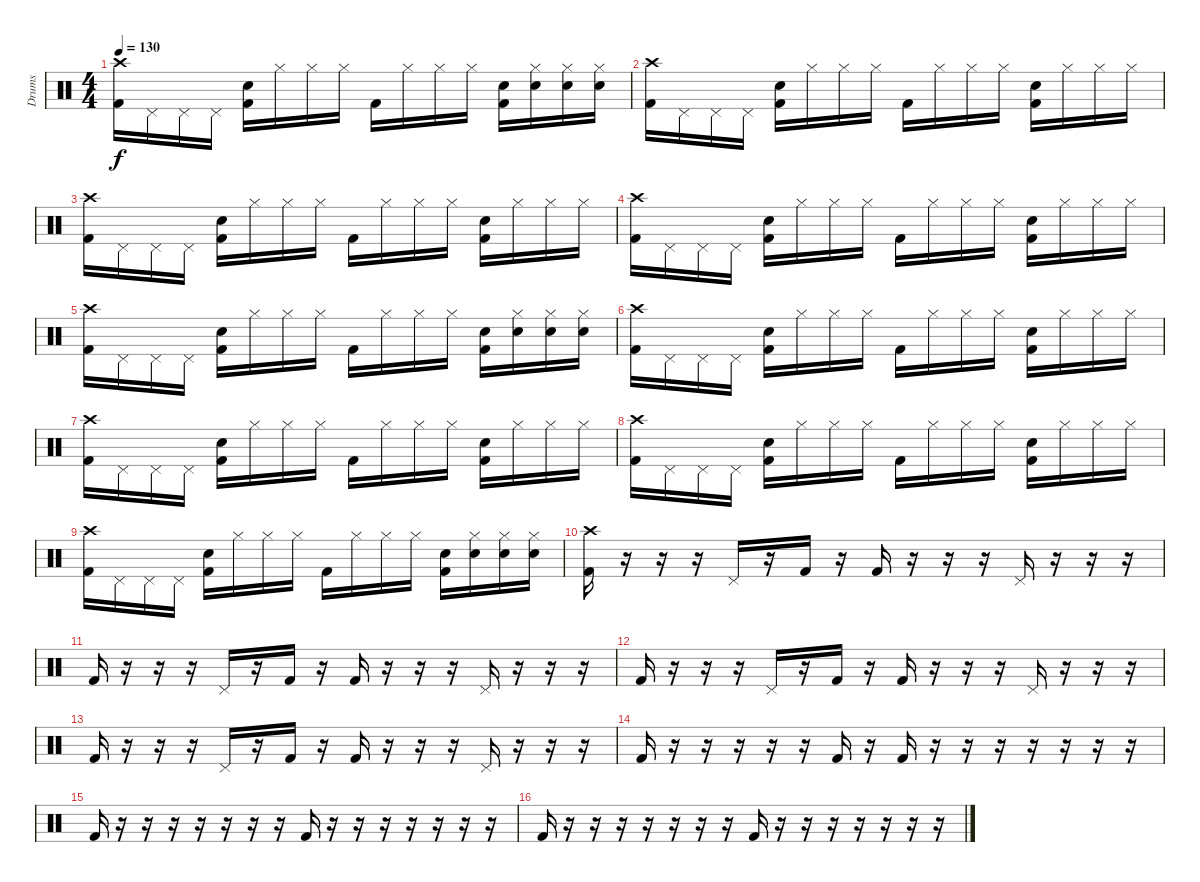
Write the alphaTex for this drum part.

\track ("Drums" "Drums") {instrument percussion}
\staff {score}
\articulation defaults
\ts (4 4)
\tempo 130
\clef neutral
\ks c
("Crash high (hit)" "Kick (hit) 2").16{dy f} "Pedal Hi-Hat (hit)".16 "Pedal Hi-Hat (hit)".16 "Pedal Hi-Hat (hit)".16 ("Electric Snare (hit)" "Kick (hit) 2").16 "Hi-Hat (closed)".16 "Hi-Hat (closed)".16 "Hi-Hat (closed)".16 "Kick (hit) 2".16 "Hi-Hat (closed)".16 "Hi-Hat (closed)".16 "Hi-Hat (closed)".16 ("Electric Snare (hit)" "Kick (hit) 2").16 ("Hi-Hat (closed)" "Electric Snare (hit)").16 ("Hi-Hat (closed)" "Electric Snare (hit)").16 ("Hi-Hat (closed)" "Electric Snare (hit)").16 |
("Crash high (hit)" "Kick (hit) 2").16 "Pedal Hi-Hat (hit)".16 "Pedal Hi-Hat (hit)".16 "Pedal Hi-Hat (hit)".16 ("Electric Snare (hit)" "Kick (hit) 2").16 "Hi-Hat (closed)".16 "Hi-Hat (closed)".16 "Hi-Hat (closed)".16 "Kick (hit) 2".16 "Hi-Hat (closed)".16 "Hi-Hat (closed)".16 "Hi-Hat (closed)".16 ("Electric Snare (hit)" "Kick (hit) 2").16 "Hi-Hat (closed)".16 "Hi-Hat (closed)".16 "Hi-Hat (closed)".16 |
("Crash high (hit)" "Kick (hit) 2").16 "Pedal Hi-Hat (hit)".16 "Pedal Hi-Hat (hit)".16 "Pedal Hi-Hat (hit)".16 ("Electric Snare (hit)" "Kick (hit) 2").16 "Hi-Hat (closed)".16 "Hi-Hat (closed)".16 "Hi-Hat (closed)".16 "Kick (hit) 2".16 "Hi-Hat (closed)".16 "Hi-Hat (closed)".16 "Hi-Hat (closed)".16 ("Electric Snare (hit)" "Kick (hit) 2").16 "Hi-Hat (closed)".16 "Hi-Hat (closed)".16 "Hi-Hat (closed)".16 |
("Crash high (hit)" "Kick (hit) 2").16 "Pedal Hi-Hat (hit)".16 "Pedal Hi-Hat (hit)".16 "Pedal Hi-Hat (hit)".16 ("Electric Snare (hit)" "Kick (hit) 2").16 "Hi-Hat (closed)".16 "Hi-Hat (closed)".16 "Hi-Hat (closed)".16 "Kick (hit) 2".16 "Hi-Hat (closed)".16 "Hi-Hat (closed)".16 "Hi-Hat (closed)".16 ("Electric Snare (hit)" "Kick (hit) 2").16 "Hi-Hat (closed)".16 "Hi-Hat (closed)".16 "Hi-Hat (closed)".16 |
("Crash high (hit)" "Kick (hit) 2").16 "Pedal Hi-Hat (hit)".16 "Pedal Hi-Hat (hit)".16 "Pedal Hi-Hat (hit)".16 ("Electric Snare (hit)" "Kick (hit) 2").16 "Hi-Hat (closed)".16 "Hi-Hat (closed)".16 "Hi-Hat (closed)".16 "Kick (hit) 2".16 "Hi-Hat (closed)".16 "Hi-Hat (closed)".16 "Hi-Hat (closed)".16 ("Electric Snare (hit)" "Kick (hit) 2").16 ("Hi-Hat (closed)" "Electric Snare (hit)").16 ("Hi-Hat (closed)" "Electric Snare (hit)").16 ("Hi-Hat (closed)" "Electric Snare (hit)").16 |
("Crash high (hit)" "Kick (hit) 2").16 "Pedal Hi-Hat (hit)".16 "Pedal Hi-Hat (hit)".16 "Pedal Hi-Hat (hit)".16 ("Electric Snare (hit)" "Kick (hit) 2").16 "Hi-Hat (closed)".16 "Hi-Hat (closed)".16 "Hi-Hat (closed)".16 "Kick (hit) 2".16 "Hi-Hat (closed)".16 "Hi-Hat (closed)".16 "Hi-Hat (closed)".16 ("Electric Snare (hit)" "Kick (hit) 2").16 "Hi-Hat (closed)".16 "Hi-Hat (closed)".16 "Hi-Hat (closed)".16 |
("Crash high (hit)" "Kick (hit) 2").16 "Pedal Hi-Hat (hit)".16 "Pedal Hi-Hat (hit)".16 "Pedal Hi-Hat (hit)".16 ("Electric Snare (hit)" "Kick (hit) 2").16 "Hi-Hat (closed)".16 "Hi-Hat (closed)".16 "Hi-Hat (closed)".16 "Kick (hit) 2".16 "Hi-Hat (closed)".16 "Hi-Hat (closed)".16 "Hi-Hat (closed)".16 ("Electric Snare (hit)" "Kick (hit) 2").16 "Hi-Hat (closed)".16 "Hi-Hat (closed)".16 "Hi-Hat (closed)".16 |
("Crash high (hit)" "Kick (hit) 2").16 "Pedal Hi-Hat (hit)".16 "Pedal Hi-Hat (hit)".16 "Pedal Hi-Hat (hit)".16 ("Electric Snare (hit)" "Kick (hit) 2").16 "Hi-Hat (closed)".16 "Hi-Hat (closed)".16 "Hi-Hat (closed)".16 "Kick (hit) 2".16 "Hi-Hat (closed)".16 "Hi-Hat (closed)".16 "Hi-Hat (closed)".16 ("Electric Snare (hit)" "Kick (hit) 2").16 "Hi-Hat (closed)".16 "Hi-Hat (closed)".16 "Hi-Hat (closed)".16 |
("Crash high (hit)" "Kick (hit) 2").16 "Pedal Hi-Hat (hit)".16 "Pedal Hi-Hat (hit)".16 "Pedal Hi-Hat (hit)".16 ("Electric Snare (hit)" "Kick (hit) 2").16 "Hi-Hat (closed)".16 "Hi-Hat (closed)".16 "Hi-Hat (closed)".16 "Kick (hit) 2".16 "Hi-Hat (closed)".16 "Hi-Hat (closed)".16 "Hi-Hat (closed)".16 ("Electric Snare (hit)" "Kick (hit) 2").16 ("Hi-Hat (closed)" "Electric Snare (hit)").16 ("Hi-Hat (closed)" "Electric Snare (hit)").16 ("Hi-Hat (closed)" "Electric Snare (hit)").16 |
("Crash high (hit)" "Kick (hit) 2").16 r.16 r.16 r.16 "Pedal Hi-Hat (hit)".16 r.16 "Kick (hit) 2".16 r.16 "Kick (hit) 2".16 r.16 r.16 r.16 "Pedal Hi-Hat (hit)".16 r.16 r.16 r.16 |
"Kick (hit) 2".16 r.16 r.16 r.16 "Pedal Hi-Hat (hit)".16 r.16 "Kick (hit) 2".16 r.16 "Kick (hit) 2".16 r.16 r.16 r.16 "Pedal Hi-Hat (hit)".16 r.16 r.16 r.16 |
"Kick (hit) 2".16 r.16 r.16 r.16 "Pedal Hi-Hat (hit)".16 r.16 "Kick (hit) 2".16 r.16 "Kick (hit) 2".16 r.16 r.16 r.16 "Pedal Hi-Hat (hit)".16 r.16 r.16 r.16 |
"Kick (hit) 2".16 r.16 r.16 r.16 "Pedal Hi-Hat (hit)".16 r.16 "Kick (hit) 2".16 r.16 "Kick (hit) 2".16 r.16 r.16 r.16 "Pedal Hi-Hat (hit)".16 r.16 r.16 r.16 |
"Kick (hit) 2".16 r.16 r.16 r.16 r.16 r.16 "Kick (hit) 2".16 r.16 "Kick (hit) 2".16 r.16 r.16 r.16 r.16 r.16 r.16 r.16 |
"Kick (hit) 2".16 r.16 r.16 r.16 r.16 r.16 r.16 r.16 "Kick (hit) 2".16 r.16 r.16 r.16 r.16 r.16 r.16 r.16 |
"Kick (hit) 2".16 r.16 r.16 r.16 r.16 r.16 r.16 r.16 "Kick (hit) 2".16 r.16 r.16 r.16 r.16 r.16 r.16 r.16
